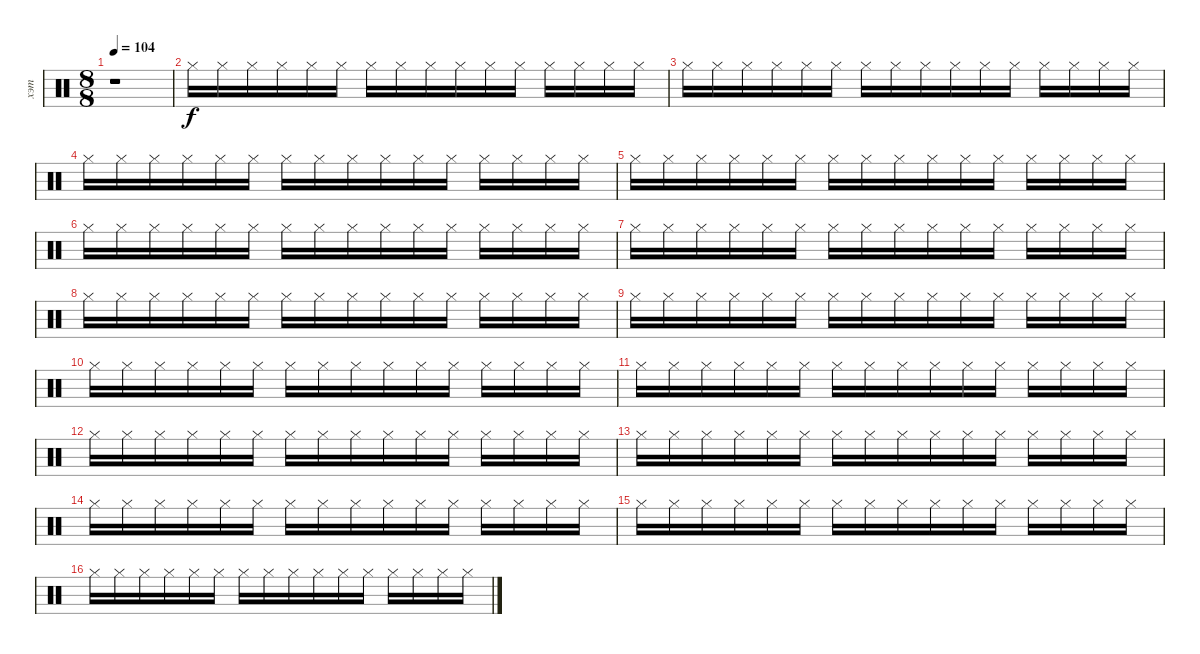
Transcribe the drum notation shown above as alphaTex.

\track ("хэт" "хэт") {instrument percussion}
\staff {score}
\articulation defaults
\ts (8 8)
\tempo 104
\clef neutral
\ks c
r.1{dy f} |
"Hi-Hat (closed)".16 "Hi-Hat (closed)".16 "Hi-Hat (closed)".16 "Hi-Hat (closed)".16 "Hi-Hat (closed)".16 "Hi-Hat (closed)".16 "Hi-Hat (closed)".16 "Hi-Hat (closed)".16 "Hi-Hat (closed)".16 "Hi-Hat (closed)".16 "Hi-Hat (closed)".16 "Hi-Hat (closed)".16 "Hi-Hat (closed)".16 "Hi-Hat (closed)".16 "Hi-Hat (closed)".16 "Hi-Hat (closed)".16 |
"Hi-Hat (closed)".16 "Hi-Hat (closed)".16 "Hi-Hat (closed)".16 "Hi-Hat (closed)".16 "Hi-Hat (closed)".16 "Hi-Hat (closed)".16 "Hi-Hat (closed)".16 "Hi-Hat (closed)".16 "Hi-Hat (closed)".16 "Hi-Hat (closed)".16 "Hi-Hat (closed)".16 "Hi-Hat (closed)".16 "Hi-Hat (closed)".16 "Hi-Hat (closed)".16 "Hi-Hat (closed)".16 "Hi-Hat (closed)".16 |
"Hi-Hat (closed)".16 "Hi-Hat (closed)".16 "Hi-Hat (closed)".16 "Hi-Hat (closed)".16 "Hi-Hat (closed)".16 "Hi-Hat (closed)".16 "Hi-Hat (closed)".16 "Hi-Hat (closed)".16 "Hi-Hat (closed)".16 "Hi-Hat (closed)".16 "Hi-Hat (closed)".16 "Hi-Hat (closed)".16 "Hi-Hat (closed)".16 "Hi-Hat (closed)".16 "Hi-Hat (closed)".16 "Hi-Hat (closed)".16 |
"Hi-Hat (closed)".16 "Hi-Hat (closed)".16 "Hi-Hat (closed)".16 "Hi-Hat (closed)".16 "Hi-Hat (closed)".16 "Hi-Hat (closed)".16 "Hi-Hat (closed)".16 "Hi-Hat (closed)".16 "Hi-Hat (closed)".16 "Hi-Hat (closed)".16 "Hi-Hat (closed)".16 "Hi-Hat (closed)".16 "Hi-Hat (closed)".16 "Hi-Hat (closed)".16 "Hi-Hat (closed)".16 "Hi-Hat (closed)".16 |
"Hi-Hat (closed)".16 "Hi-Hat (closed)".16 "Hi-Hat (closed)".16 "Hi-Hat (closed)".16 "Hi-Hat (closed)".16 "Hi-Hat (closed)".16 "Hi-Hat (closed)".16 "Hi-Hat (closed)".16 "Hi-Hat (closed)".16 "Hi-Hat (closed)".16 "Hi-Hat (closed)".16 "Hi-Hat (closed)".16 "Hi-Hat (closed)".16 "Hi-Hat (closed)".16 "Hi-Hat (closed)".16 "Hi-Hat (closed)".16 |
"Hi-Hat (closed)".16 "Hi-Hat (closed)".16 "Hi-Hat (closed)".16 "Hi-Hat (closed)".16 "Hi-Hat (closed)".16 "Hi-Hat (closed)".16 "Hi-Hat (closed)".16 "Hi-Hat (closed)".16 "Hi-Hat (closed)".16 "Hi-Hat (closed)".16 "Hi-Hat (closed)".16 "Hi-Hat (closed)".16 "Hi-Hat (closed)".16 "Hi-Hat (closed)".16 "Hi-Hat (closed)".16 "Hi-Hat (closed)".16 |
"Hi-Hat (closed)".16 "Hi-Hat (closed)".16 "Hi-Hat (closed)".16 "Hi-Hat (closed)".16 "Hi-Hat (closed)".16 "Hi-Hat (closed)".16 "Hi-Hat (closed)".16 "Hi-Hat (closed)".16 "Hi-Hat (closed)".16 "Hi-Hat (closed)".16 "Hi-Hat (closed)".16 "Hi-Hat (closed)".16 "Hi-Hat (closed)".16 "Hi-Hat (closed)".16 "Hi-Hat (closed)".16 "Hi-Hat (closed)".16 |
"Hi-Hat (closed)".16 "Hi-Hat (closed)".16 "Hi-Hat (closed)".16 "Hi-Hat (closed)".16 "Hi-Hat (closed)".16 "Hi-Hat (closed)".16 "Hi-Hat (closed)".16 "Hi-Hat (closed)".16 "Hi-Hat (closed)".16 "Hi-Hat (closed)".16 "Hi-Hat (closed)".16 "Hi-Hat (closed)".16 "Hi-Hat (closed)".16 "Hi-Hat (closed)".16 "Hi-Hat (closed)".16 "Hi-Hat (closed)".16 |
"Hi-Hat (closed)".16 "Hi-Hat (closed)".16 "Hi-Hat (closed)".16 "Hi-Hat (closed)".16 "Hi-Hat (closed)".16 "Hi-Hat (closed)".16 "Hi-Hat (closed)".16 "Hi-Hat (closed)".16 "Hi-Hat (closed)".16 "Hi-Hat (closed)".16 "Hi-Hat (closed)".16 "Hi-Hat (closed)".16 "Hi-Hat (closed)".16 "Hi-Hat (closed)".16 "Hi-Hat (closed)".16 "Hi-Hat (closed)".16 |
"Hi-Hat (closed)".16 "Hi-Hat (closed)".16 "Hi-Hat (closed)".16 "Hi-Hat (closed)".16 "Hi-Hat (closed)".16 "Hi-Hat (closed)".16 "Hi-Hat (closed)".16 "Hi-Hat (closed)".16 "Hi-Hat (closed)".16 "Hi-Hat (closed)".16 "Hi-Hat (closed)".16 "Hi-Hat (closed)".16 "Hi-Hat (closed)".16 "Hi-Hat (closed)".16 "Hi-Hat (closed)".16 "Hi-Hat (closed)".16 |
"Hi-Hat (closed)".16 "Hi-Hat (closed)".16 "Hi-Hat (closed)".16 "Hi-Hat (closed)".16 "Hi-Hat (closed)".16 "Hi-Hat (closed)".16 "Hi-Hat (closed)".16 "Hi-Hat (closed)".16 "Hi-Hat (closed)".16 "Hi-Hat (closed)".16 "Hi-Hat (closed)".16 "Hi-Hat (closed)".16 "Hi-Hat (closed)".16 "Hi-Hat (closed)".16 "Hi-Hat (closed)".16 "Hi-Hat (closed)".16 |
"Hi-Hat (closed)".16 "Hi-Hat (closed)".16 "Hi-Hat (closed)".16 "Hi-Hat (closed)".16 "Hi-Hat (closed)".16 "Hi-Hat (closed)".16 "Hi-Hat (closed)".16 "Hi-Hat (closed)".16 "Hi-Hat (closed)".16 "Hi-Hat (closed)".16 "Hi-Hat (closed)".16 "Hi-Hat (closed)".16 "Hi-Hat (closed)".16 "Hi-Hat (closed)".16 "Hi-Hat (closed)".16 "Hi-Hat (closed)".16 |
"Hi-Hat (closed)".16 "Hi-Hat (closed)".16 "Hi-Hat (closed)".16 "Hi-Hat (closed)".16 "Hi-Hat (closed)".16 "Hi-Hat (closed)".16 "Hi-Hat (closed)".16 "Hi-Hat (closed)".16 "Hi-Hat (closed)".16 "Hi-Hat (closed)".16 "Hi-Hat (closed)".16 "Hi-Hat (closed)".16 "Hi-Hat (closed)".16 "Hi-Hat (closed)".16 "Hi-Hat (closed)".16 "Hi-Hat (closed)".16 |
"Hi-Hat (closed)".16 "Hi-Hat (closed)".16 "Hi-Hat (closed)".16 "Hi-Hat (closed)".16 "Hi-Hat (closed)".16 "Hi-Hat (closed)".16 "Hi-Hat (closed)".16 "Hi-Hat (closed)".16 "Hi-Hat (closed)".16 "Hi-Hat (closed)".16 "Hi-Hat (closed)".16 "Hi-Hat (closed)".16 "Hi-Hat (closed)".16 "Hi-Hat (closed)".16 "Hi-Hat (closed)".16 "Hi-Hat (closed)".16 |
"Hi-Hat (closed)".16 "Hi-Hat (closed)".16 "Hi-Hat (closed)".16 "Hi-Hat (closed)".16 "Hi-Hat (closed)".16 "Hi-Hat (closed)".16 "Hi-Hat (closed)".16 "Hi-Hat (closed)".16 "Hi-Hat (closed)".16 "Hi-Hat (closed)".16 "Hi-Hat (closed)".16 "Hi-Hat (closed)".16 "Hi-Hat (closed)".16 "Hi-Hat (closed)".16 "Hi-Hat (closed)".16 "Hi-Hat (closed)".16
